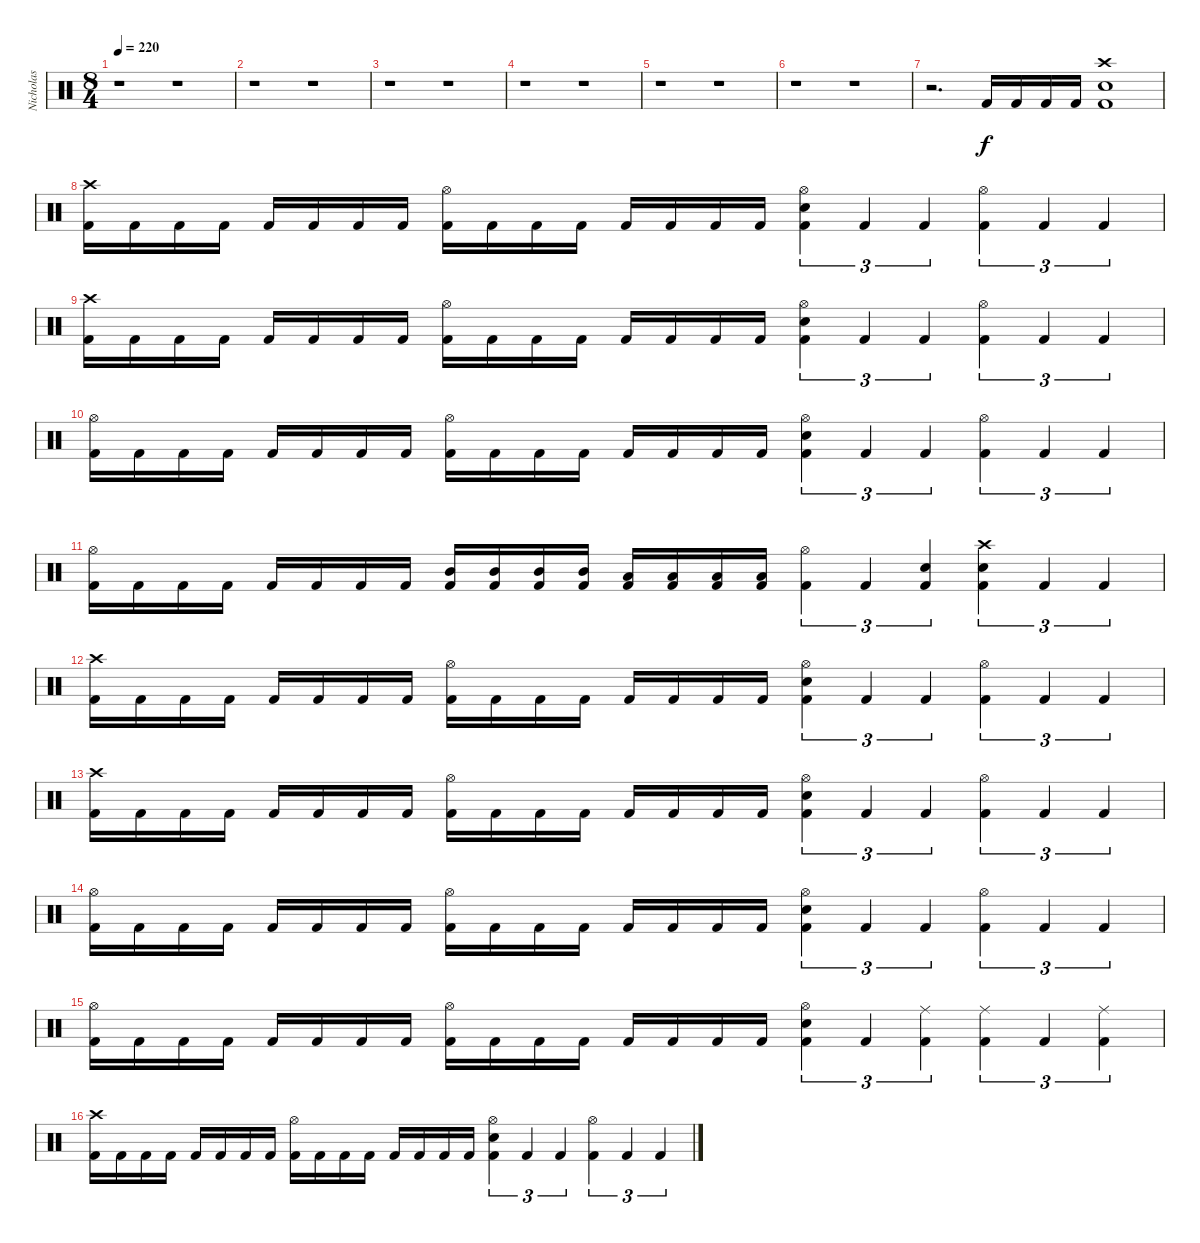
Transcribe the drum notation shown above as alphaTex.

\track ("Nicholas" "Nicholas") {instrument percussion}
\staff {score}
\articulation defaults
\ts (8 4)
\tempo 220
\clef neutral
\ks c
r.1{dy f} r.1 |
r.1 r.1 |
r.1 r.1 |
r.1 r.1 |
r.1 r.1 |
r.1 r.1 |
r.2{d} "Kick (hit) 2".16 "Kick (hit) 2".16 "Kick (hit) 2".16 "Kick (hit) 2".16 ("Kick (hit) 2" "Snare (hit) 2" "Crash high (hit)").1 |
("Kick (hit) 2" "Crash high (hit)").16 "Kick (hit) 2".16 "Kick (hit) 2".16 "Kick (hit) 2".16 "Kick (hit) 2".16 "Kick (hit) 2".16 "Kick (hit) 2".16 "Kick (hit) 2".16 ("Kick (hit) 2" "Hi-Hat (open)").16 "Kick (hit) 2".16 "Kick (hit) 2".16 "Kick (hit) 2".16 "Kick (hit) 2".16 "Kick (hit) 2".16 "Kick (hit) 2".16 "Kick (hit) 2".16 ("Kick (hit) 2" "Snare (hit) 2" "Hi-Hat (open)").4{tu (3 2)} "Kick (hit) 2".4{tu (3 2)} "Kick (hit) 2".4{tu (3 2)} ("Kick (hit) 2" "Hi-Hat (open)").4{tu (3 2)} "Kick (hit) 2".4{tu (3 2)} "Kick (hit) 2".4{tu (3 2)} |
("Kick (hit) 2" "Crash high (hit)").16 "Kick (hit) 2".16 "Kick (hit) 2".16 "Kick (hit) 2".16 "Kick (hit) 2".16 "Kick (hit) 2".16 "Kick (hit) 2".16 "Kick (hit) 2".16 ("Kick (hit) 2" "Hi-Hat (open)").16 "Kick (hit) 2".16 "Kick (hit) 2".16 "Kick (hit) 2".16 "Kick (hit) 2".16 "Kick (hit) 2".16 "Kick (hit) 2".16 "Kick (hit) 2".16 ("Kick (hit) 2" "Snare (hit) 2" "Hi-Hat (open)").4{tu (3 2)} "Kick (hit) 2".4{tu (3 2)} "Kick (hit) 2".4{tu (3 2)} ("Kick (hit) 2" "Hi-Hat (open)").4{tu (3 2)} "Kick (hit) 2".4{tu (3 2)} "Kick (hit) 2".4{tu (3 2)} |
("Kick (hit) 2" "Hi-Hat (open)").16 "Kick (hit) 2".16 "Kick (hit) 2".16 "Kick (hit) 2".16 "Kick (hit) 2".16 "Kick (hit) 2".16 "Kick (hit) 2".16 "Kick (hit) 2".16 ("Kick (hit) 2" "Hi-Hat (open)").16 "Kick (hit) 2".16 "Kick (hit) 2".16 "Kick (hit) 2".16 "Kick (hit) 2".16 "Kick (hit) 2".16 "Kick (hit) 2".16 "Kick (hit) 2".16 ("Kick (hit) 2" "Snare (hit) 2" "Hi-Hat (open)").4{tu (3 2)} "Kick (hit) 2".4{tu (3 2)} "Kick (hit) 2".4{tu (3 2)} ("Kick (hit) 2" "Hi-Hat (open)").4{tu (3 2)} "Kick (hit) 2".4{tu (3 2)} "Kick (hit) 2".4{tu (3 2)} |
("Kick (hit) 2" "Hi-Hat (open)").16 "Kick (hit) 2".16 "Kick (hit) 2".16 "Kick (hit) 2".16 "Kick (hit) 2".16 "Kick (hit) 2".16 "Kick (hit) 2".16 "Kick (hit) 2".16 ("Kick (hit) 2" "Mid Tom (hit)").16 ("Kick (hit) 2" "Mid Tom (hit)").16 ("Kick (hit) 2" "Mid Tom (hit)").16 ("Kick (hit) 2" "Mid Tom (hit)").16 ("Kick (hit) 2" "Low Tom (hit)").16 ("Kick (hit) 2" "Low Tom (hit)").16 ("Kick (hit) 2" "Low Tom (hit)").16 ("Kick (hit) 2" "Low Tom (hit)").16 ("Kick (hit) 2" "Hi-Hat (open)").4{tu (3 2)} "Kick (hit) 2".4{tu (3 2)} ("Kick (hit) 2" "Snare (hit) 2").4{tu (3 2)} ("Kick (hit) 2" "Snare (hit) 2" "Crash high (hit)").4{tu (3 2)} "Kick (hit) 2".4{tu (3 2)} "Kick (hit) 2".4{tu (3 2)} |
("Kick (hit) 2" "Crash high (hit)").16 "Kick (hit) 2".16 "Kick (hit) 2".16 "Kick (hit) 2".16 "Kick (hit) 2".16 "Kick (hit) 2".16 "Kick (hit) 2".16 "Kick (hit) 2".16 ("Kick (hit) 2" "Hi-Hat (open)").16 "Kick (hit) 2".16 "Kick (hit) 2".16 "Kick (hit) 2".16 "Kick (hit) 2".16 "Kick (hit) 2".16 "Kick (hit) 2".16 "Kick (hit) 2".16 ("Kick (hit) 2" "Snare (hit) 2" "Hi-Hat (open)").4{tu (3 2)} "Kick (hit) 2".4{tu (3 2)} "Kick (hit) 2".4{tu (3 2)} ("Kick (hit) 2" "Hi-Hat (open)").4{tu (3 2)} "Kick (hit) 2".4{tu (3 2)} "Kick (hit) 2".4{tu (3 2)} |
("Kick (hit) 2" "Crash high (hit)").16 "Kick (hit) 2".16 "Kick (hit) 2".16 "Kick (hit) 2".16 "Kick (hit) 2".16 "Kick (hit) 2".16 "Kick (hit) 2".16 "Kick (hit) 2".16 ("Kick (hit) 2" "Hi-Hat (open)").16 "Kick (hit) 2".16 "Kick (hit) 2".16 "Kick (hit) 2".16 "Kick (hit) 2".16 "Kick (hit) 2".16 "Kick (hit) 2".16 "Kick (hit) 2".16 ("Kick (hit) 2" "Snare (hit) 2" "Hi-Hat (open)").4{tu (3 2)} "Kick (hit) 2".4{tu (3 2)} "Kick (hit) 2".4{tu (3 2)} ("Kick (hit) 2" "Hi-Hat (open)").4{tu (3 2)} "Kick (hit) 2".4{tu (3 2)} "Kick (hit) 2".4{tu (3 2)} |
("Kick (hit) 2" "Hi-Hat (open)").16 "Kick (hit) 2".16 "Kick (hit) 2".16 "Kick (hit) 2".16 "Kick (hit) 2".16 "Kick (hit) 2".16 "Kick (hit) 2".16 "Kick (hit) 2".16 ("Kick (hit) 2" "Hi-Hat (open)").16 "Kick (hit) 2".16 "Kick (hit) 2".16 "Kick (hit) 2".16 "Kick (hit) 2".16 "Kick (hit) 2".16 "Kick (hit) 2".16 "Kick (hit) 2".16 ("Kick (hit) 2" "Snare (hit) 2" "Hi-Hat (open)").4{tu (3 2)} "Kick (hit) 2".4{tu (3 2)} "Kick (hit) 2".4{tu (3 2)} ("Kick (hit) 2" "Hi-Hat (open)").4{tu (3 2)} "Kick (hit) 2".4{tu (3 2)} "Kick (hit) 2".4{tu (3 2)} |
("Kick (hit) 2" "Hi-Hat (open)").16 "Kick (hit) 2".16 "Kick (hit) 2".16 "Kick (hit) 2".16 "Kick (hit) 2".16 "Kick (hit) 2".16 "Kick (hit) 2".16 "Kick (hit) 2".16 ("Kick (hit) 2" "Hi-Hat (open)").16 "Kick (hit) 2".16 "Kick (hit) 2".16 "Kick (hit) 2".16 "Kick (hit) 2".16 "Kick (hit) 2".16 "Kick (hit) 2".16 "Kick (hit) 2".16 ("Kick (hit) 2" "Snare (hit) 2" "Hi-Hat (open)").4{tu (3 2)} "Kick (hit) 2".4{tu (3 2)} ("Kick (hit) 2" "Ride (middle)").4{tu (3 2)} ("Kick (hit) 2" "Ride (middle)").4{tu (3 2)} "Kick (hit) 2".4{tu (3 2)} ("Kick (hit) 2" "Ride (middle)").4{tu (3 2)} |
("Kick (hit) 2" "Crash high (hit)").16 "Kick (hit) 2".16 "Kick (hit) 2".16 "Kick (hit) 2".16 "Kick (hit) 2".16 "Kick (hit) 2".16 "Kick (hit) 2".16 "Kick (hit) 2".16 ("Kick (hit) 2" "Hi-Hat (open)").16 "Kick (hit) 2".16 "Kick (hit) 2".16 "Kick (hit) 2".16 "Kick (hit) 2".16 "Kick (hit) 2".16 "Kick (hit) 2".16 "Kick (hit) 2".16 ("Kick (hit) 2" "Snare (hit) 2" "Hi-Hat (open)").4{tu (3 2)} "Kick (hit) 2".4{tu (3 2)} "Kick (hit) 2".4{tu (3 2)} ("Kick (hit) 2" "Hi-Hat (open)").4{tu (3 2)} "Kick (hit) 2".4{tu (3 2)} "Kick (hit) 2".4{tu (3 2)}
